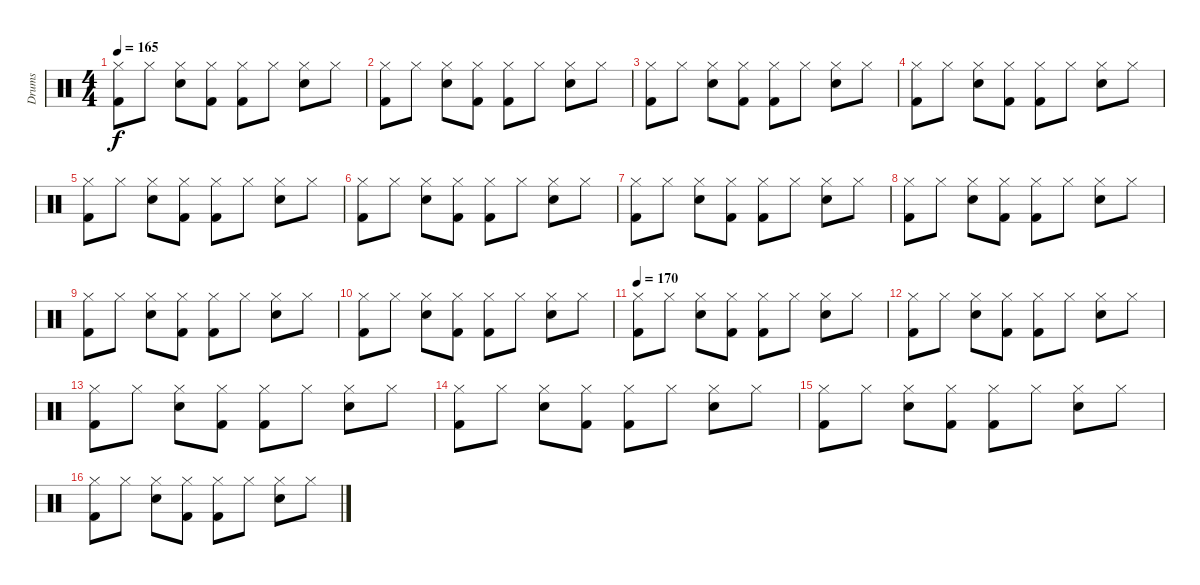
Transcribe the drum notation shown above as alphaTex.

\track ("Drums" "Drums") {instrument percussion}
\staff {score}
\articulation defaults
\ts (4 4)
\tempo 165
\clef neutral
\ks c
("Hi-Hat (closed)" "Kick (hit) 2").8{dy f} "Hi-Hat (closed)".8 ("Hi-Hat (closed)" "Snare (hit) 2").8 ("Hi-Hat (closed)" "Kick (hit) 2").8 ("Hi-Hat (closed)" "Kick (hit) 2").8 "Hi-Hat (closed)".8 ("Hi-Hat (closed)" "Snare (hit) 2").8 "Hi-Hat (closed)".8 |
("Hi-Hat (closed)" "Kick (hit) 2").8 "Hi-Hat (closed)".8 ("Hi-Hat (closed)" "Snare (hit) 2").8 ("Hi-Hat (closed)" "Kick (hit) 2").8 ("Hi-Hat (closed)" "Kick (hit) 2").8 "Hi-Hat (closed)".8 ("Hi-Hat (closed)" "Snare (hit) 2").8 "Hi-Hat (closed)".8 |
("Hi-Hat (closed)" "Kick (hit) 2").8 "Hi-Hat (closed)".8 ("Hi-Hat (closed)" "Snare (hit) 2").8 ("Hi-Hat (closed)" "Kick (hit) 2").8 ("Hi-Hat (closed)" "Kick (hit) 2").8 "Hi-Hat (closed)".8 ("Hi-Hat (closed)" "Snare (hit) 2").8 "Hi-Hat (closed)".8 |
("Hi-Hat (closed)" "Kick (hit) 2").8 "Hi-Hat (closed)".8 ("Hi-Hat (closed)" "Snare (hit) 2").8 ("Hi-Hat (closed)" "Kick (hit) 2").8 ("Hi-Hat (closed)" "Kick (hit) 2").8 "Hi-Hat (closed)".8 ("Hi-Hat (closed)" "Snare (hit) 2").8 "Hi-Hat (closed)".8 |
("Hi-Hat (closed)" "Kick (hit) 2").8 "Hi-Hat (closed)".8 ("Hi-Hat (closed)" "Snare (hit) 2").8 ("Hi-Hat (closed)" "Kick (hit) 2").8 ("Hi-Hat (closed)" "Kick (hit) 2").8 "Hi-Hat (closed)".8 ("Hi-Hat (closed)" "Snare (hit) 2").8 "Hi-Hat (closed)".8 |
("Hi-Hat (closed)" "Kick (hit) 2").8 "Hi-Hat (closed)".8 ("Hi-Hat (closed)" "Snare (hit) 2").8 ("Hi-Hat (closed)" "Kick (hit) 2").8 ("Hi-Hat (closed)" "Kick (hit) 2").8 "Hi-Hat (closed)".8 ("Hi-Hat (closed)" "Snare (hit) 2").8 "Hi-Hat (closed)".8 |
("Hi-Hat (closed)" "Kick (hit) 2").8 "Hi-Hat (closed)".8 ("Hi-Hat (closed)" "Snare (hit) 2").8 ("Hi-Hat (closed)" "Kick (hit) 2").8 ("Hi-Hat (closed)" "Kick (hit) 2").8 "Hi-Hat (closed)".8 ("Hi-Hat (closed)" "Snare (hit) 2").8 "Hi-Hat (closed)".8 |
("Hi-Hat (closed)" "Kick (hit) 2").8 "Hi-Hat (closed)".8 ("Hi-Hat (closed)" "Snare (hit) 2").8 ("Hi-Hat (closed)" "Kick (hit) 2").8 ("Hi-Hat (closed)" "Kick (hit) 2").8 "Hi-Hat (closed)".8 ("Hi-Hat (closed)" "Snare (hit) 2").8 "Hi-Hat (closed)".8 |
("Hi-Hat (closed)" "Kick (hit) 2").8 "Hi-Hat (closed)".8 ("Hi-Hat (closed)" "Snare (hit) 2").8 ("Hi-Hat (closed)" "Kick (hit) 2").8 ("Hi-Hat (closed)" "Kick (hit) 2").8 "Hi-Hat (closed)".8 ("Hi-Hat (closed)" "Snare (hit) 2").8 "Hi-Hat (closed)".8 |
("Hi-Hat (closed)" "Kick (hit) 2").8 "Hi-Hat (closed)".8 ("Hi-Hat (closed)" "Snare (hit) 2").8 ("Hi-Hat (closed)" "Kick (hit) 2").8 ("Hi-Hat (closed)" "Kick (hit) 2").8 "Hi-Hat (closed)".8 ("Hi-Hat (closed)" "Snare (hit) 2").8 "Hi-Hat (closed)".8 |
\tempo 170
("Hi-Hat (closed)" "Kick (hit) 2").8 "Hi-Hat (closed)".8 ("Hi-Hat (closed)" "Snare (hit) 2").8 ("Hi-Hat (closed)" "Kick (hit) 2").8 ("Hi-Hat (closed)" "Kick (hit) 2").8 "Hi-Hat (closed)".8 ("Hi-Hat (closed)" "Snare (hit) 2").8 "Hi-Hat (closed)".8 |
("Hi-Hat (closed)" "Kick (hit) 2").8 "Hi-Hat (closed)".8 ("Hi-Hat (closed)" "Snare (hit) 2").8 ("Hi-Hat (closed)" "Kick (hit) 2").8 ("Hi-Hat (closed)" "Kick (hit) 2").8 "Hi-Hat (closed)".8 ("Hi-Hat (closed)" "Snare (hit) 2").8 "Hi-Hat (closed)".8 |
("Hi-Hat (closed)" "Kick (hit) 2").8 "Hi-Hat (closed)".8 ("Hi-Hat (closed)" "Snare (hit) 2").8 ("Hi-Hat (closed)" "Kick (hit) 2").8 ("Hi-Hat (closed)" "Kick (hit) 2").8 "Hi-Hat (closed)".8 ("Hi-Hat (closed)" "Snare (hit) 2").8 "Hi-Hat (closed)".8 |
("Hi-Hat (closed)" "Kick (hit) 2").8 "Hi-Hat (closed)".8 ("Hi-Hat (closed)" "Snare (hit) 2").8 ("Hi-Hat (closed)" "Kick (hit) 2").8 ("Hi-Hat (closed)" "Kick (hit) 2").8 "Hi-Hat (closed)".8 ("Hi-Hat (closed)" "Snare (hit) 2").8 "Hi-Hat (closed)".8 |
("Hi-Hat (closed)" "Kick (hit) 2").8 "Hi-Hat (closed)".8 ("Hi-Hat (closed)" "Snare (hit) 2").8 ("Hi-Hat (closed)" "Kick (hit) 2").8 ("Hi-Hat (closed)" "Kick (hit) 2").8 "Hi-Hat (closed)".8 ("Hi-Hat (closed)" "Snare (hit) 2").8 "Hi-Hat (closed)".8 |
("Hi-Hat (closed)" "Kick (hit) 2").8 "Hi-Hat (closed)".8 ("Hi-Hat (closed)" "Snare (hit) 2").8 ("Hi-Hat (closed)" "Kick (hit) 2").8 ("Hi-Hat (closed)" "Kick (hit) 2").8 "Hi-Hat (closed)".8 ("Hi-Hat (closed)" "Snare (hit) 2").8 "Hi-Hat (closed)".8
